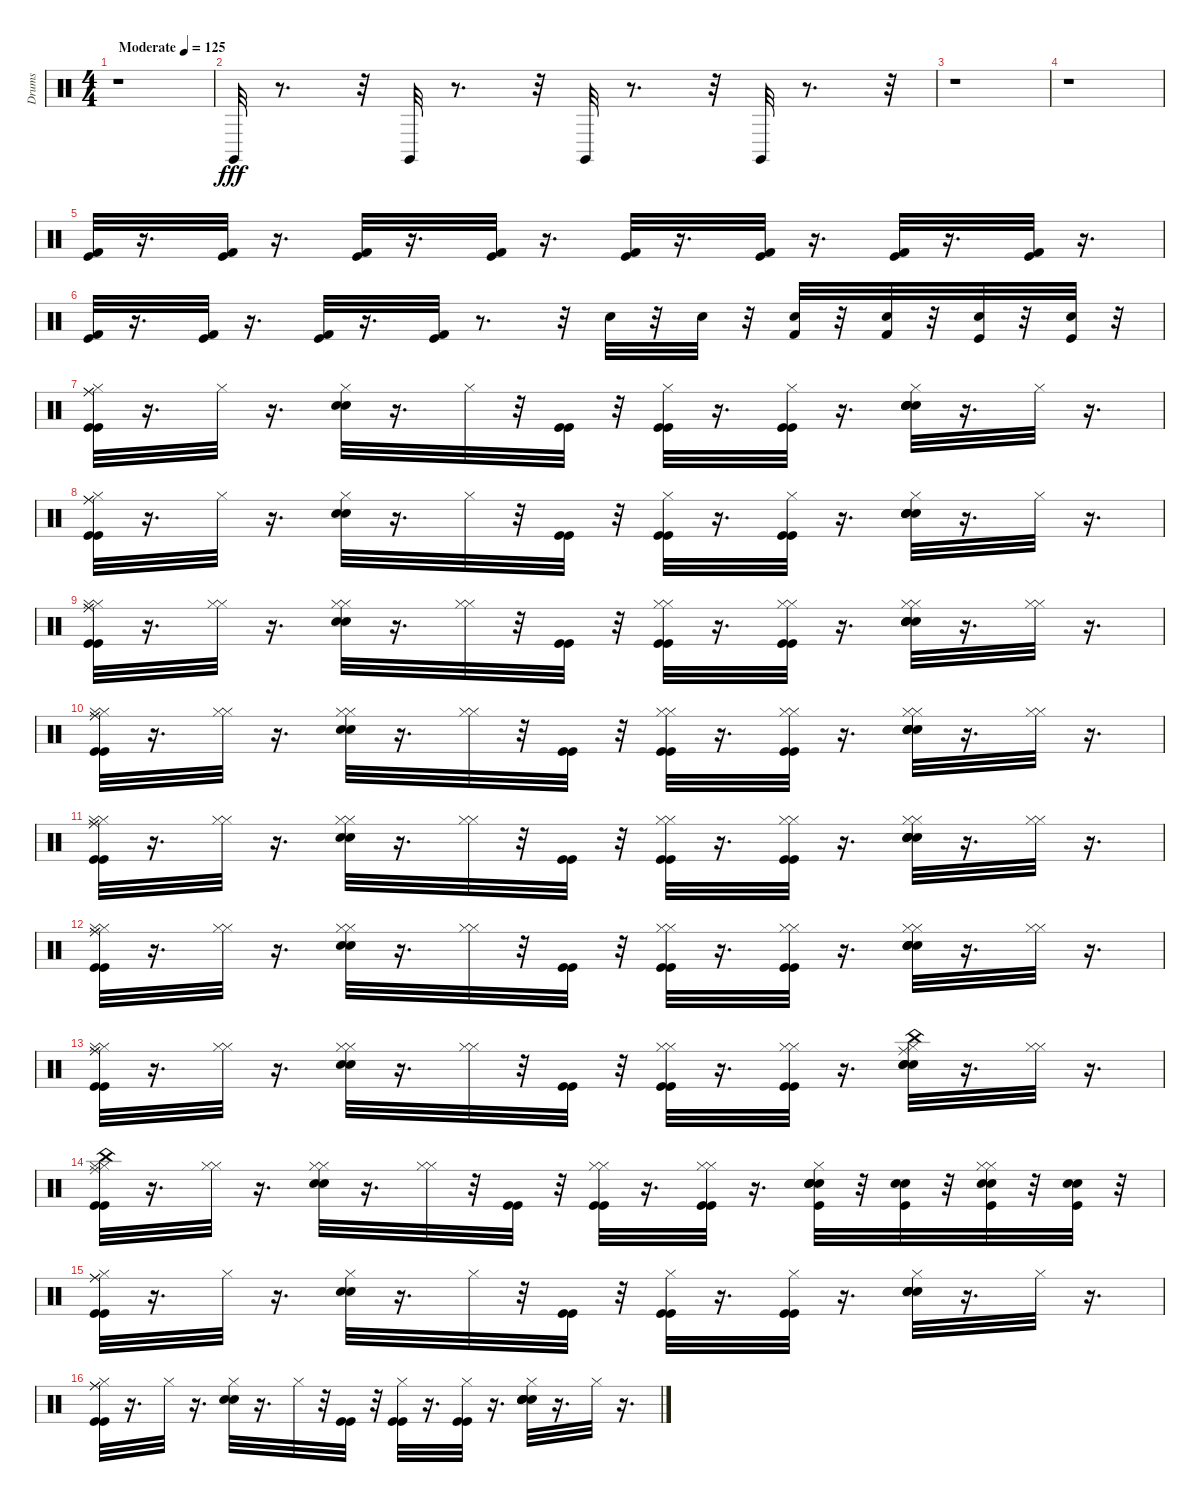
\track ("Drums" "Drums") {instrument percussion}
\staff {score}
\articulation defaults
\ts (4 4)
\tempo (125 "Moderate")
\clef neutral
\ks c
r.1{dy fff} |
"Claves (hit)".32 r.8{d} r.32 "Claves (hit)".32 r.8{d} r.32 "Claves (hit)".32 r.8{d} r.32 "Claves (hit)".32 r.8{d} r.32 |
r.1 |
r.1 |
("Kick (hit) 2" "Kick (hit)").32{volume 0} r.16{d} ("Kick (hit) 2" "Kick (hit)").32{volume 0} r.16{d} ("Kick (hit) 2" "Kick (hit)").32{volume 2} r.16{d} ("Kick (hit) 2" "Kick (hit)").32{volume 3} r.16{d} ("Kick (hit) 2" "Kick (hit)").32{volume 5} r.16{d} ("Kick (hit) 2" "Kick (hit)").32{volume 6} r.16{d} ("Kick (hit) 2" "Kick (hit)").32{volume 8} r.16{d} ("Kick (hit) 2" "Kick (hit)").32{volume 9} r.16{d} |
("Kick (hit) 2" "Kick (hit)").32{volume 10} r.16{d} ("Kick (hit) 2" "Kick (hit)").32{volume 12} r.16{d} ("Kick (hit) 2" "Kick (hit)").32{volume 13} r.16{d} ("Kick (hit) 2" "Kick (hit)").32{volume 15} r.8{d} r.32 "Electric Snare (hit)".32{volume 16} r.32 "Electric Snare (hit)".32 r.32 ("Kick (hit) 2" "Electric Snare (hit)").32 r.32 ("Kick (hit) 2" "Electric Snare (hit)").32 r.32 ("Snare (hit) 2" "Kick (hit)").32 r.32 ("Snare (hit) 2" "Kick (hit)").32 r.32 |
("Hi-Hat (closed)" "Kick (hit)" "Ride (middle)" "Kick (hit)" "Ride (middle)").32 r.16{d} "Hi-Hat (closed)".32 r.16{d} ("Snare (hit) 2" "Electric Snare (hit)" "Hi-Hat (closed)").32 r.16{d} "Hi-Hat (closed)".32 r.32 ("Kick (hit)" "Kick (hit)").32 r.32 ("Hi-Hat (closed)" "Kick (hit)" "Kick (hit)").32 r.16{d} ("Hi-Hat (closed)" "Kick (hit)" "Kick (hit)").32 r.16{d} ("Hi-Hat (closed)" "Snare (hit) 2" "Electric Snare (hit)" "Snare (hit) 2" "Electric Snare (hit)").32 r.16{d} "Hi-Hat (closed)".32 r.16{d} |
("Hi-Hat (closed)" "Kick (hit)" "Ride (middle)" "Kick (hit)" "Ride (middle)").32 r.16{d} "Hi-Hat (closed)".32 r.16{d} ("Snare (hit) 2" "Electric Snare (hit)" "Hi-Hat (closed)").32 r.16{d} "Hi-Hat (closed)".32 r.32 ("Kick (hit)" "Kick (hit)").32 r.32 ("Hi-Hat (closed)" "Kick (hit)" "Kick (hit)").32 r.16{d} ("Hi-Hat (closed)" "Kick (hit)" "Kick (hit)").32 r.16{d} ("Hi-Hat (closed)" "Snare (hit) 2" "Electric Snare (hit)" "Snare (hit) 2" "Electric Snare (hit)").32 r.16{d} "Hi-Hat (closed)".32 r.16{d} |
("Kick (hit)" "Hi-Hat (closed)" "Ride (middle)" "Kick (hit)" "Hi-Hat (closed)" "Ride (middle)").32 r.16{d} ("Hi-Hat (closed)" "Hi-Hat (closed)").32 r.16{d} ("Snare (hit) 2" "Electric Snare (hit)" "Hi-Hat (closed)" "Hi-Hat (closed)").32 r.16{d} ("Hi-Hat (closed)" "Hi-Hat (closed)").32 r.32 ("Kick (hit)" "Kick (hit)").32 r.32 ("Kick (hit)" "Hi-Hat (closed)" "Kick (hit)" "Hi-Hat (closed)").32 r.16{d} ("Kick (hit)" "Hi-Hat (closed)" "Kick (hit)" "Hi-Hat (closed)").32 r.16{d} ("Snare (hit) 2" "Electric Snare (hit)" "Hi-Hat (closed)" "Snare (hit) 2" "Electric Snare (hit)" "Hi-Hat (closed)").32 r.16{d} ("Hi-Hat (closed)" "Hi-Hat (closed)").32 r.16{d} |
("Kick (hit)" "Hi-Hat (closed)" "Ride (middle)" "Kick (hit)" "Hi-Hat (closed)" "Ride (middle)").32 r.16{d} ("Hi-Hat (closed)" "Hi-Hat (closed)").32 r.16{d} ("Snare (hit) 2" "Electric Snare (hit)" "Hi-Hat (closed)" "Hi-Hat (closed)").32 r.16{d} ("Hi-Hat (closed)" "Hi-Hat (closed)").32 r.32 ("Kick (hit)" "Kick (hit)").32 r.32 ("Kick (hit)" "Hi-Hat (closed)" "Kick (hit)" "Hi-Hat (closed)").32 r.16{d} ("Kick (hit)" "Hi-Hat (closed)" "Kick (hit)" "Hi-Hat (closed)").32 r.16{d} ("Snare (hit) 2" "Electric Snare (hit)" "Hi-Hat (closed)" "Snare (hit) 2" "Electric Snare (hit)" "Hi-Hat (closed)").32 r.16{d} ("Hi-Hat (closed)" "Hi-Hat (closed)").32 r.16{d} |
("Kick (hit)" "Hi-Hat (closed)" "Ride (middle)" "Kick (hit)" "Hi-Hat (closed)" "Ride (middle)").32 r.16{d} ("Hi-Hat (closed)" "Hi-Hat (closed)").32 r.16{d} ("Snare (hit) 2" "Electric Snare (hit)" "Hi-Hat (closed)" "Hi-Hat (closed)").32 r.16{d} ("Hi-Hat (closed)" "Hi-Hat (closed)").32 r.32 ("Kick (hit)" "Kick (hit)").32 r.32 ("Kick (hit)" "Hi-Hat (closed)" "Kick (hit)" "Hi-Hat (closed)").32 r.16{d} ("Kick (hit)" "Hi-Hat (closed)" "Kick (hit)" "Hi-Hat (closed)").32 r.16{d} ("Snare (hit) 2" "Electric Snare (hit)" "Hi-Hat (closed)" "Snare (hit) 2" "Electric Snare (hit)" "Hi-Hat (closed)").32 r.16{d} ("Hi-Hat (closed)" "Hi-Hat (closed)").32 r.16{d} |
("Kick (hit)" "Hi-Hat (closed)" "Ride (middle)" "Kick (hit)" "Hi-Hat (closed)" "Ride (middle)").32 r.16{d} ("Hi-Hat (closed)" "Hi-Hat (closed)").32 r.16{d} ("Snare (hit) 2" "Electric Snare (hit)" "Hi-Hat (closed)" "Hi-Hat (closed)").32 r.16{d} ("Hi-Hat (closed)" "Hi-Hat (closed)").32 r.32 ("Kick (hit)" "Kick (hit)").32 r.32 ("Kick (hit)" "Hi-Hat (closed)" "Kick (hit)" "Hi-Hat (closed)").32 r.16{d} ("Kick (hit)" "Hi-Hat (closed)" "Kick (hit)" "Hi-Hat (closed)").32 r.16{d} ("Snare (hit) 2" "Electric Snare (hit)" "Hi-Hat (closed)" "Snare (hit) 2" "Electric Snare (hit)" "Hi-Hat (closed)").32 r.16{d} ("Hi-Hat (closed)" "Hi-Hat (closed)").32 r.16{d} |
("Kick (hit)" "Hi-Hat (closed)" "Ride (middle)" "Kick (hit)" "Hi-Hat (closed)" "Ride (middle)").32 r.16{d} ("Hi-Hat (closed)" "Hi-Hat (closed)").32 r.16{d} ("Electric Snare (hit)" "Snare (hit) 2" "Hi-Hat (closed)" "Hi-Hat (closed)").32 r.16{d} ("Hi-Hat (closed)" "Hi-Hat (closed)").32 r.32 ("Kick (hit)" "Kick (hit)").32 r.32 ("Kick (hit)" "Hi-Hat (closed)" "Kick (hit)" "Hi-Hat (closed)").32 r.16{d} ("Kick (hit)" "Hi-Hat (closed)" "Kick (hit)" "Hi-Hat (closed)").32 r.16{d} ("Ride (middle)" "China (hit)" "Snare (hit) 2" "Electric Snare (hit)" "Hi-Hat (closed)" "Snare (hit) 2").32 r.16{d} ("Hi-Hat (closed)" "Hi-Hat (closed)").32 r.16{d} |
("China (hit)" "Kick (hit)" "Hi-Hat (closed)" "Ride (middle)" "Kick (hit)" "Hi-Hat (closed)").32 r.16{d} ("Hi-Hat (closed)" "Hi-Hat (closed)").32 r.16{d} ("Snare (hit) 2" "Electric Snare (hit)" "Hi-Hat (closed)" "Hi-Hat (closed)").32 r.16{d} ("Hi-Hat (closed)" "Hi-Hat (closed)").32 r.32 ("Kick (hit)" "Kick (hit)").32 r.32 ("Kick (hit)" "Hi-Hat (closed)" "Kick (hit)" "Hi-Hat (closed)").32 r.16{d} ("Kick (hit)" "Hi-Hat (closed)" "Kick (hit)" "Hi-Hat (closed)").32 r.16{d} ("Kick (hit)" "Snare (hit) 2" "Electric Snare (hit)" "Hi-Hat (closed)" "Snare (hit) 2" "Electric Snare (hit)").32 r.32 ("Electric Snare (hit)" "Snare (hit) 2" "Kick (hit)").32 r.32 ("Snare (hit) 2" "Electric Snare (hit)" "Kick (hit)" "Hi-Hat (closed)" "Hi-Hat (closed)").32 r.32 ("Electric Snare (hit)" "Snare (hit) 2" "Kick (hit)").32 r.32 |
("Hi-Hat (closed)" "Kick (hit)" "Ride (middle)" "Kick (hit)" "Ride (middle)").32 r.16{d} "Hi-Hat (closed)".32 r.16{d} ("Snare (hit) 2" "Electric Snare (hit)" "Hi-Hat (closed)").32 r.16{d} "Hi-Hat (closed)".32 r.32 ("Kick (hit)" "Kick (hit)").32 r.32 ("Hi-Hat (closed)" "Kick (hit)" "Kick (hit)").32 r.16{d} ("Hi-Hat (closed)" "Kick (hit)" "Kick (hit)").32 r.16{d} ("Hi-Hat (closed)" "Snare (hit) 2" "Electric Snare (hit)" "Snare (hit) 2" "Electric Snare (hit)").32 r.16{d} "Hi-Hat (closed)".32 r.16{d} |
("Hi-Hat (closed)" "Kick (hit)" "Ride (middle)" "Kick (hit)" "Ride (middle)").32 r.16{d} "Hi-Hat (closed)".32 r.16{d} ("Snare (hit) 2" "Electric Snare (hit)" "Hi-Hat (closed)").32 r.16{d} "Hi-Hat (closed)".32 r.32 ("Kick (hit)" "Kick (hit)").32 r.32 ("Hi-Hat (closed)" "Kick (hit)" "Kick (hit)").32 r.16{d} ("Hi-Hat (closed)" "Kick (hit)" "Kick (hit)").32 r.16{d} ("Hi-Hat (closed)" "Snare (hit) 2" "Electric Snare (hit)" "Snare (hit) 2" "Electric Snare (hit)").32 r.16{d} "Hi-Hat (closed)".32 r.16{d}
